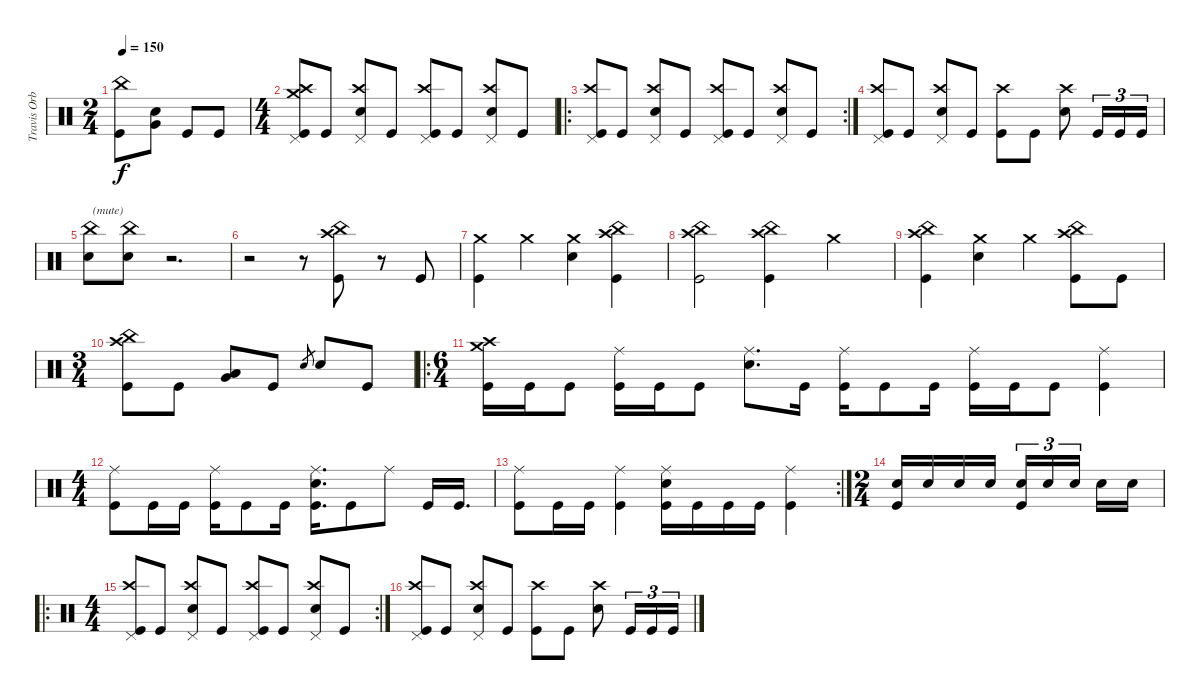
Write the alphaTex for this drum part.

\track ("Travis Orbin" "Travis Orb") {instrument percussion}
\staff {score}
\articulation defaults
\ts (2 4)
\tempo 150
\clef neutral
\ks c
("China (hit)" "Kick (hit)").8{dy f} ("Electric Snare (hit)" "Very Low Tom (hit)").8 "Kick (hit)".8 "Kick (hit)".8 |
\ts (4 4)
("Crash high (hit)" "Crash medium (hit)" "Kick (hit)" "Pedal Hi-Hat (hit)").8 "Kick (hit)".8 ("Crash high (hit)" "Electric Snare (hit)" "Pedal Hi-Hat (hit)").8 "Kick (hit)".8 ("Crash high (hit)" "Kick (hit)" "Pedal Hi-Hat (hit)").8 "Kick (hit)".8 ("Crash high (hit)" "Electric Snare (hit)" "Pedal Hi-Hat (hit)").8 "Kick (hit)".8 |
\ro
\rc 2
("Crash high (hit)" "Kick (hit)" "Pedal Hi-Hat (hit)").8 "Kick (hit)".8 ("Crash high (hit)" "Electric Snare (hit)" "Pedal Hi-Hat (hit)").8 "Kick (hit)".8 ("Crash high (hit)" "Kick (hit)" "Pedal Hi-Hat (hit)").8 "Kick (hit)".8 ("Crash high (hit)" "Electric Snare (hit)" "Pedal Hi-Hat (hit)").8 "Kick (hit)".8 |
("Crash high (hit)" "Kick (hit)" "Pedal Hi-Hat (hit)").8 "Kick (hit)".8 ("Crash high (hit)" "Electric Snare (hit)" "Pedal Hi-Hat (hit)").8 "Kick (hit)".8 ("Crash high (hit)" "Kick (hit)").8 "Kick (hit)".8 ("Crash high (hit)" "Electric Snare (hit)").8 "Kick (hit)".16{tu (3 2)} "Kick (hit)".16{tu (3 2)} "Kick (hit)".16{tu (3 2)} |
("China (hit)" "Electric Snare (hit)").8{txt "(mute)"} ("China (hit)" "Electric Snare (hit)").8 r.2{d} |
r.2 r.8 ("Crash high (hit)" "China (hit)" "Kick (hit)").8 r.8 "Kick (hit)".8 |
("Crash medium (hit)" "Kick (hit)").4 "Crash medium (hit)".4 ("Crash medium (hit)" "Electric Snare (hit)").4 ("Crash high (hit)" "China (hit)" "Kick (hit)").4 |
("Crash high (hit)" "China (hit)" "Kick (hit)").2 ("Crash high (hit)" "China (hit)" "Kick (hit)").4 "Crash medium (hit)".4 |
("Crash high (hit)" "China (hit)" "Kick (hit)").4 ("Crash medium (hit)" "Electric Snare (hit)").4 "Crash medium (hit)".4 ("Crash high (hit)" "China (hit)" "Kick (hit)").8 "Kick (hit)".8 |
\ts (3 4)
("Crash high (hit)" "China (hit)" "Kick (hit)").8 "Kick (hit)".8 ("Low Tom (hit)" "Very Low Tom (hit)").8 "Kick (hit)".8 "Electric Snare (hit)".8{gr} "Electric Snare (hit)".8 "Kick (hit)".8 |
\ro
\ts (6 4)
("Crash high (hit)" "Crash medium (hit)" "Kick (hit)").16 "Kick (hit)".16 "Kick (hit)".8 ("Ride (middle)" "Kick (hit)").16 "Kick (hit)".16 "Kick (hit)".8 ("Ride (middle)" "Electric Snare (hit)").8{d} "Kick (hit)".16 ("Ride (middle)" "Kick (hit)").16 "Kick (hit)".8 "Kick (hit)".16 ("Ride (middle)" "Kick (hit)").16 "Kick (hit)".16 "Kick (hit)".8 ("Ride (middle)" "Kick (hit)").4 |
\ts (4 4)
("Ride (middle)" "Kick (hit)").8 "Kick (hit)".16 "Kick (hit)".16 ("Ride (middle)" "Kick (hit)").16 "Kick (hit)".8 "Kick (hit)".16 ("Ride (middle)" "Electric Snare (hit)" "Kick (hit)").16{d} "Kick (hit)".8 "Ride (middle)".8 "Kick (hit)".16 "Kick (hit)".16{d} |
\rc 2
("Ride (middle)" "Kick (hit)").8 "Kick (hit)".16 "Kick (hit)".16 ("Ride (middle)" "Kick (hit)").4 ("Ride (middle)" "Electric Snare (hit)" "Kick (hit)").16 "Kick (hit)".16 "Kick (hit)".16 "Kick (hit)".16 ("Ride (middle)" "Kick (hit)").4 |
\ts (2 4)
("Electric Snare (hit)" "Kick (hit)").16 "Electric Snare (hit)".16 "Electric Snare (hit)".16 "Electric Snare (hit)".16 ("Electric Snare (hit)" "Kick (hit)").16{tu (3 2)} "Electric Snare (hit)".16{tu (3 2)} "Electric Snare (hit)".16{tu (3 2) beam splitsecondary} "Electric Snare (hit)".16 "Electric Snare (hit)".16 |
\ro
\rc 2
\ts (4 4)
("Crash high (hit)" "Kick (hit)" "Pedal Hi-Hat (hit)").8 "Kick (hit)".8 ("Crash high (hit)" "Electric Snare (hit)" "Pedal Hi-Hat (hit)").8 "Kick (hit)".8 ("Crash high (hit)" "Kick (hit)" "Pedal Hi-Hat (hit)").8 "Kick (hit)".8 ("Crash high (hit)" "Electric Snare (hit)" "Pedal Hi-Hat (hit)").8 "Kick (hit)".8 |
("Crash high (hit)" "Kick (hit)" "Pedal Hi-Hat (hit)").8 "Kick (hit)".8 ("Crash high (hit)" "Electric Snare (hit)" "Pedal Hi-Hat (hit)").8 "Kick (hit)".8 ("Crash high (hit)" "Kick (hit)").8 "Kick (hit)".8 ("Crash high (hit)" "Electric Snare (hit)").8 "Kick (hit)".16{tu (3 2)} "Kick (hit)".16{tu (3 2)} "Kick (hit)".16{tu (3 2)}
